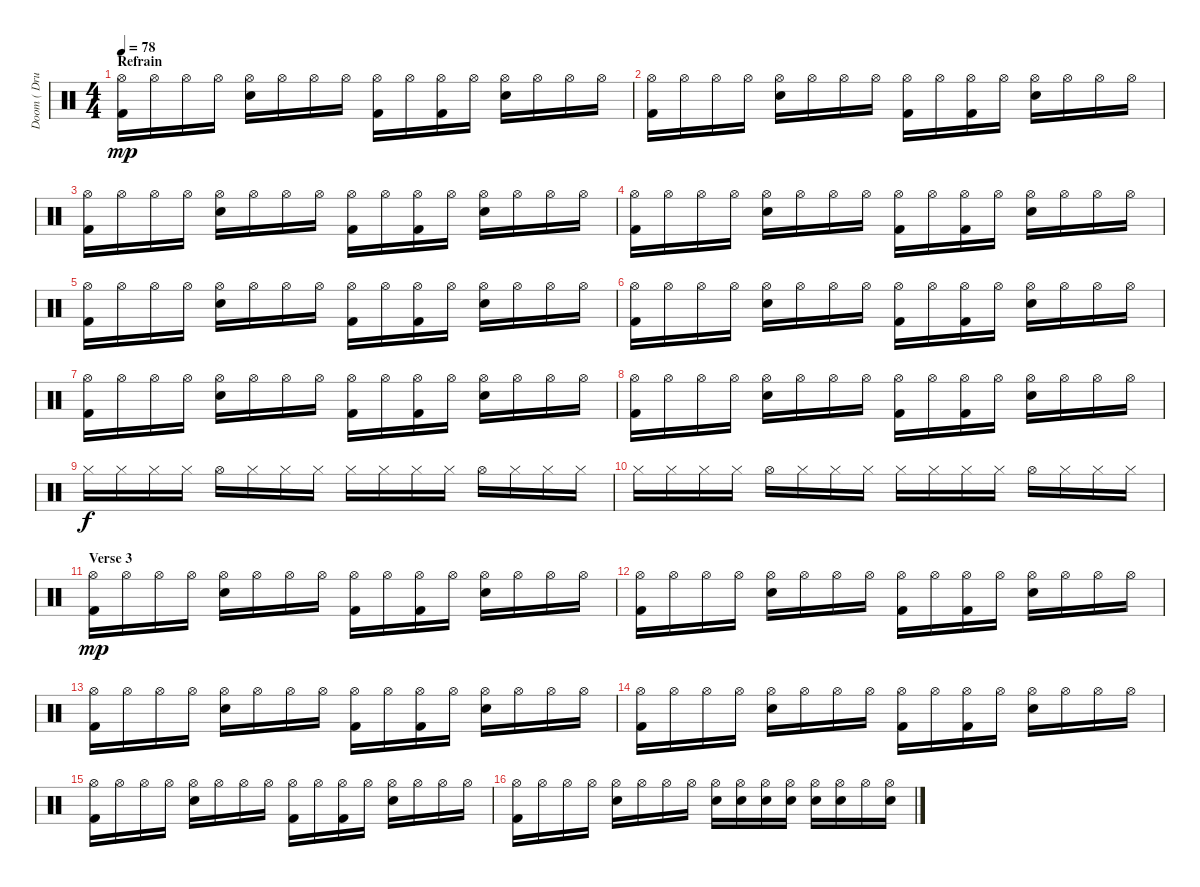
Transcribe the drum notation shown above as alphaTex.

\track ("Doom ( Drums )" "Doom ( Dru") {instrument percussion}
\staff {score}
\articulation defaults
\ts (4 4)
\section ("" "Refrain ")
\tempo 78
\clef neutral
\ks c
("Kick (hit) 2" "Hi-Hat (open)").16{dy mp} "Hi-Hat (open)".16 "Hi-Hat (open)".16 "Hi-Hat (open)".16 ("Electric Snare (hit)" "Hi-Hat (open)").16 "Hi-Hat (open)".16 "Hi-Hat (open)".16 "Hi-Hat (open)".16 ("Kick (hit) 2" "Hi-Hat (open)").16 "Hi-Hat (open)".16 ("Kick (hit) 2" "Hi-Hat (open)").16 "Hi-Hat (open)".16 ("Electric Snare (hit)" "Hi-Hat (open)").16 "Hi-Hat (open)".16 "Hi-Hat (open)".16 "Hi-Hat (open)".16 |
("Kick (hit) 2" "Hi-Hat (open)").16 "Hi-Hat (open)".16 "Hi-Hat (open)".16 "Hi-Hat (open)".16 ("Electric Snare (hit)" "Hi-Hat (open)").16 "Hi-Hat (open)".16 "Hi-Hat (open)".16 "Hi-Hat (open)".16 ("Kick (hit) 2" "Hi-Hat (open)").16 "Hi-Hat (open)".16 ("Kick (hit) 2" "Hi-Hat (open)").16 "Hi-Hat (open)".16 ("Electric Snare (hit)" "Hi-Hat (open)").16 "Hi-Hat (open)".16 "Hi-Hat (open)".16 "Hi-Hat (open)".16 |
("Kick (hit) 2" "Hi-Hat (open)").16 "Hi-Hat (open)".16 "Hi-Hat (open)".16 "Hi-Hat (open)".16 ("Electric Snare (hit)" "Hi-Hat (open)").16 "Hi-Hat (open)".16 "Hi-Hat (open)".16 "Hi-Hat (open)".16 ("Kick (hit) 2" "Hi-Hat (open)").16 "Hi-Hat (open)".16 ("Kick (hit) 2" "Hi-Hat (open)").16 "Hi-Hat (open)".16 ("Electric Snare (hit)" "Hi-Hat (open)").16 "Hi-Hat (open)".16 "Hi-Hat (open)".16 "Hi-Hat (open)".16 |
("Kick (hit) 2" "Hi-Hat (open)").16 "Hi-Hat (open)".16 "Hi-Hat (open)".16 "Hi-Hat (open)".16 ("Electric Snare (hit)" "Hi-Hat (open)").16 "Hi-Hat (open)".16 "Hi-Hat (open)".16 "Hi-Hat (open)".16 ("Kick (hit) 2" "Hi-Hat (open)").16 "Hi-Hat (open)".16 ("Kick (hit) 2" "Hi-Hat (open)").16 "Hi-Hat (open)".16 ("Electric Snare (hit)" "Hi-Hat (open)").16 "Hi-Hat (open)".16 "Hi-Hat (open)".16 "Hi-Hat (open)".16 |
("Kick (hit) 2" "Hi-Hat (open)").16 "Hi-Hat (open)".16 "Hi-Hat (open)".16 "Hi-Hat (open)".16 ("Electric Snare (hit)" "Hi-Hat (open)").16 "Hi-Hat (open)".16 "Hi-Hat (open)".16 "Hi-Hat (open)".16 ("Kick (hit) 2" "Hi-Hat (open)").16 "Hi-Hat (open)".16 ("Kick (hit) 2" "Hi-Hat (open)").16 "Hi-Hat (open)".16 ("Electric Snare (hit)" "Hi-Hat (open)").16 "Hi-Hat (open)".16 "Hi-Hat (open)".16 "Hi-Hat (open)".16 |
("Kick (hit) 2" "Hi-Hat (open)").16 "Hi-Hat (open)".16 "Hi-Hat (open)".16 "Hi-Hat (open)".16 ("Electric Snare (hit)" "Hi-Hat (open)").16 "Hi-Hat (open)".16 "Hi-Hat (open)".16 "Hi-Hat (open)".16 ("Kick (hit) 2" "Hi-Hat (open)").16 "Hi-Hat (open)".16 ("Kick (hit) 2" "Hi-Hat (open)").16 "Hi-Hat (open)".16 ("Electric Snare (hit)" "Hi-Hat (open)").16 "Hi-Hat (open)".16 "Hi-Hat (open)".16 "Hi-Hat (open)".16 |
("Kick (hit) 2" "Hi-Hat (open)").16 "Hi-Hat (open)".16 "Hi-Hat (open)".16 "Hi-Hat (open)".16 ("Electric Snare (hit)" "Hi-Hat (open)").16 "Hi-Hat (open)".16 "Hi-Hat (open)".16 "Hi-Hat (open)".16 ("Kick (hit) 2" "Hi-Hat (open)").16 "Hi-Hat (open)".16 ("Kick (hit) 2" "Hi-Hat (open)").16 "Hi-Hat (open)".16 ("Electric Snare (hit)" "Hi-Hat (open)").16 "Hi-Hat (open)".16 "Hi-Hat (open)".16 "Hi-Hat (open)".16 |
("Kick (hit) 2" "Hi-Hat (open)").16 "Hi-Hat (open)".16 "Hi-Hat (open)".16 "Hi-Hat (open)".16 ("Electric Snare (hit)" "Hi-Hat (open)").16 "Hi-Hat (open)".16 "Hi-Hat (open)".16 "Hi-Hat (open)".16 ("Kick (hit) 2" "Hi-Hat (open)").16 "Hi-Hat (open)".16 ("Kick (hit) 2" "Hi-Hat (open)").16 "Hi-Hat (open)".16 ("Electric Snare (hit)" "Hi-Hat (open)").16 "Hi-Hat (open)".16 "Hi-Hat (open)".16 "Hi-Hat (open)".16 |
"Hi-Hat (closed)".16{dy f} "Hi-Hat (closed)".16 "Hi-Hat (closed)".16 "Hi-Hat (closed)".16 "Hi-Hat (open)".16 "Hi-Hat (closed)".16 "Hi-Hat (closed)".16 "Hi-Hat (closed)".16 "Hi-Hat (closed)".16 "Hi-Hat (closed)".16 "Hi-Hat (closed)".16 "Hi-Hat (closed)".16 "Hi-Hat (open)".16 "Hi-Hat (closed)".16 "Hi-Hat (closed)".16 "Hi-Hat (closed)".16 |
"Hi-Hat (closed)".16 "Hi-Hat (closed)".16 "Hi-Hat (closed)".16 "Hi-Hat (closed)".16 "Hi-Hat (open)".16 "Hi-Hat (closed)".16 "Hi-Hat (closed)".16 "Hi-Hat (closed)".16 "Hi-Hat (closed)".16 "Hi-Hat (closed)".16 "Hi-Hat (closed)".16 "Hi-Hat (closed)".16 "Hi-Hat (open)".16 "Hi-Hat (closed)".16 "Hi-Hat (closed)".16 "Hi-Hat (closed)".16 |
\section ("" "Verse 3")
("Kick (hit) 2" "Hi-Hat (open)").16{dy mp} "Hi-Hat (open)".16 "Hi-Hat (open)".16 "Hi-Hat (open)".16 ("Electric Snare (hit)" "Hi-Hat (open)").16 "Hi-Hat (open)".16 "Hi-Hat (open)".16 "Hi-Hat (open)".16 ("Kick (hit) 2" "Hi-Hat (open)").16 "Hi-Hat (open)".16 ("Kick (hit) 2" "Hi-Hat (open)").16 "Hi-Hat (open)".16 ("Electric Snare (hit)" "Hi-Hat (open)").16 "Hi-Hat (open)".16 "Hi-Hat (open)".16 "Hi-Hat (open)".16 |
("Kick (hit) 2" "Hi-Hat (open)").16 "Hi-Hat (open)".16 "Hi-Hat (open)".16 "Hi-Hat (open)".16 ("Electric Snare (hit)" "Hi-Hat (open)").16 "Hi-Hat (open)".16 "Hi-Hat (open)".16 "Hi-Hat (open)".16 ("Kick (hit) 2" "Hi-Hat (open)").16 "Hi-Hat (open)".16 ("Kick (hit) 2" "Hi-Hat (open)").16 "Hi-Hat (open)".16 ("Electric Snare (hit)" "Hi-Hat (open)").16 "Hi-Hat (open)".16 "Hi-Hat (open)".16 "Hi-Hat (open)".16 |
("Kick (hit) 2" "Hi-Hat (open)").16 "Hi-Hat (open)".16 "Hi-Hat (open)".16 "Hi-Hat (open)".16 ("Electric Snare (hit)" "Hi-Hat (open)").16 "Hi-Hat (open)".16 "Hi-Hat (open)".16 "Hi-Hat (open)".16 ("Kick (hit) 2" "Hi-Hat (open)").16 "Hi-Hat (open)".16 ("Kick (hit) 2" "Hi-Hat (open)").16 "Hi-Hat (open)".16 ("Electric Snare (hit)" "Hi-Hat (open)").16 "Hi-Hat (open)".16 "Hi-Hat (open)".16 "Hi-Hat (open)".16 |
("Kick (hit) 2" "Hi-Hat (open)").16 "Hi-Hat (open)".16 "Hi-Hat (open)".16 "Hi-Hat (open)".16 ("Electric Snare (hit)" "Hi-Hat (open)").16 "Hi-Hat (open)".16 "Hi-Hat (open)".16 "Hi-Hat (open)".16 ("Kick (hit) 2" "Hi-Hat (open)").16 "Hi-Hat (open)".16 ("Kick (hit) 2" "Hi-Hat (open)").16 "Hi-Hat (open)".16 ("Electric Snare (hit)" "Hi-Hat (open)").16 "Hi-Hat (open)".16 "Hi-Hat (open)".16 "Hi-Hat (open)".16 |
("Kick (hit) 2" "Hi-Hat (open)").16 "Hi-Hat (open)".16 "Hi-Hat (open)".16 "Hi-Hat (open)".16 ("Electric Snare (hit)" "Hi-Hat (open)").16 "Hi-Hat (open)".16 "Hi-Hat (open)".16 "Hi-Hat (open)".16 ("Kick (hit) 2" "Hi-Hat (open)").16 "Hi-Hat (open)".16 ("Kick (hit) 2" "Hi-Hat (open)").16 "Hi-Hat (open)".16 ("Electric Snare (hit)" "Hi-Hat (open)").16 "Hi-Hat (open)".16 "Hi-Hat (open)".16 "Hi-Hat (open)".16 |
("Kick (hit) 2" "Hi-Hat (open)").16 "Hi-Hat (open)".16 "Hi-Hat (open)".16 "Hi-Hat (open)".16 ("Electric Snare (hit)" "Hi-Hat (open)").16 "Hi-Hat (open)".16 "Hi-Hat (open)".16 "Hi-Hat (open)".16 ("Electric Snare (hit)" "Hi-Hat (open)").16 ("Electric Snare (hit)" "Hi-Hat (open)").16 ("Electric Snare (hit)" "Hi-Hat (open)").16 ("Electric Snare (hit)" "Hi-Hat (open)").16 ("Electric Snare (hit)" "Hi-Hat (open)").16 ("Electric Snare (hit)" "Hi-Hat (open)").16 "Hi-Hat (open)".16 ("Electric Snare (hit)" "Hi-Hat (open)").16
